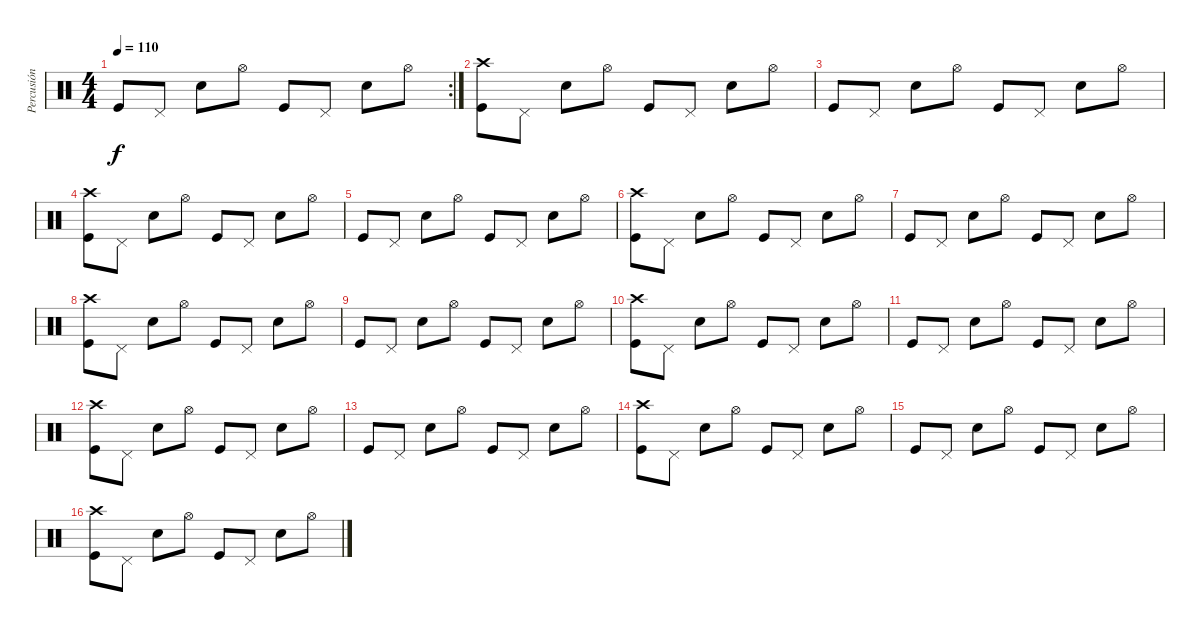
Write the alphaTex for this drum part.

\track ("Percusión" "Percusión") {instrument percussion}
\staff {score}
\articulation defaults
\rc 2
\ts (4 4)
\tempo 110
\clef neutral
\ks c "Kick (hit)".8{dy f} "Pedal Hi-Hat (hit)".8 "Electric Snare (hit)".8 "Hi-Hat (open)".8 "Kick (hit)".8 "Pedal Hi-Hat (hit)".8 "Electric Snare (hit)".8 "Hi-Hat (open)".8
|
("Kick (hit)" "Crash high (hit)").8 "Pedal Hi-Hat (hit)".8 "Electric Snare (hit)".8 "Hi-Hat (open)".8 "Kick (hit)".8 "Pedal Hi-Hat (hit)".8 "Electric Snare (hit)".8 "Hi-Hat (open)".8 |
"Kick (hit)".8 "Pedal Hi-Hat (hit)".8 "Electric Snare (hit)".8 "Hi-Hat (open)".8 "Kick (hit)".8 "Pedal Hi-Hat (hit)".8 "Electric Snare (hit)".8 "Hi-Hat (open)".8 |
("Kick (hit)" "Crash high (hit)").8 "Pedal Hi-Hat (hit)".8 "Electric Snare (hit)".8 "Hi-Hat (open)".8 "Kick (hit)".8 "Pedal Hi-Hat (hit)".8 "Electric Snare (hit)".8 "Hi-Hat (open)".8 |
"Kick (hit)".8 "Pedal Hi-Hat (hit)".8 "Electric Snare (hit)".8 "Hi-Hat (open)".8 "Kick (hit)".8 "Pedal Hi-Hat (hit)".8 "Electric Snare (hit)".8 "Hi-Hat (open)".8 |
("Kick (hit)" "Crash high (hit)").8 "Pedal Hi-Hat (hit)".8 "Electric Snare (hit)".8 "Hi-Hat (open)".8 "Kick (hit)".8 "Pedal Hi-Hat (hit)".8 "Electric Snare (hit)".8 "Hi-Hat (open)".8 |
"Kick (hit)".8 "Pedal Hi-Hat (hit)".8 "Electric Snare (hit)".8 "Hi-Hat (open)".8 "Kick (hit)".8 "Pedal Hi-Hat (hit)".8 "Electric Snare (hit)".8 "Hi-Hat (open)".8 |
("Kick (hit)" "Crash high (hit)").8 "Pedal Hi-Hat (hit)".8 "Electric Snare (hit)".8 "Hi-Hat (open)".8 "Kick (hit)".8 "Pedal Hi-Hat (hit)".8 "Electric Snare (hit)".8 "Hi-Hat (open)".8 |
"Kick (hit)".8 "Pedal Hi-Hat (hit)".8 "Electric Snare (hit)".8 "Hi-Hat (open)".8 "Kick (hit)".8 "Pedal Hi-Hat (hit)".8 "Electric Snare (hit)".8 "Hi-Hat (open)".8 |
("Kick (hit)" "Crash high (hit)").8 "Pedal Hi-Hat (hit)".8 "Electric Snare (hit)".8 "Hi-Hat (open)".8 "Kick (hit)".8 "Pedal Hi-Hat (hit)".8 "Electric Snare (hit)".8 "Hi-Hat (open)".8 |
"Kick (hit)".8 "Pedal Hi-Hat (hit)".8 "Electric Snare (hit)".8 "Hi-Hat (open)".8 "Kick (hit)".8 "Pedal Hi-Hat (hit)".8 "Electric Snare (hit)".8 "Hi-Hat (open)".8 |
("Kick (hit)" "Crash high (hit)").8 "Pedal Hi-Hat (hit)".8 "Electric Snare (hit)".8 "Hi-Hat (open)".8 "Kick (hit)".8 "Pedal Hi-Hat (hit)".8 "Electric Snare (hit)".8 "Hi-Hat (open)".8 |
"Kick (hit)".8 "Pedal Hi-Hat (hit)".8 "Electric Snare (hit)".8 "Hi-Hat (open)".8 "Kick (hit)".8 "Pedal Hi-Hat (hit)".8 "Electric Snare (hit)".8 "Hi-Hat (open)".8 |
("Kick (hit)" "Crash high (hit)").8 "Pedal Hi-Hat (hit)".8 "Electric Snare (hit)".8 "Hi-Hat (open)".8 "Kick (hit)".8 "Pedal Hi-Hat (hit)".8 "Electric Snare (hit)".8 "Hi-Hat (open)".8 |
"Kick (hit)".8 "Pedal Hi-Hat (hit)".8 "Electric Snare (hit)".8 "Hi-Hat (open)".8 "Kick (hit)".8 "Pedal Hi-Hat (hit)".8 "Electric Snare (hit)".8 "Hi-Hat (open)".8 |
("Kick (hit)" "Crash high (hit)").8 "Pedal Hi-Hat (hit)".8 "Electric Snare (hit)".8 "Hi-Hat (open)".8 "Kick (hit)".8 "Pedal Hi-Hat (hit)".8 "Electric Snare (hit)".8 "Hi-Hat (open)".8
